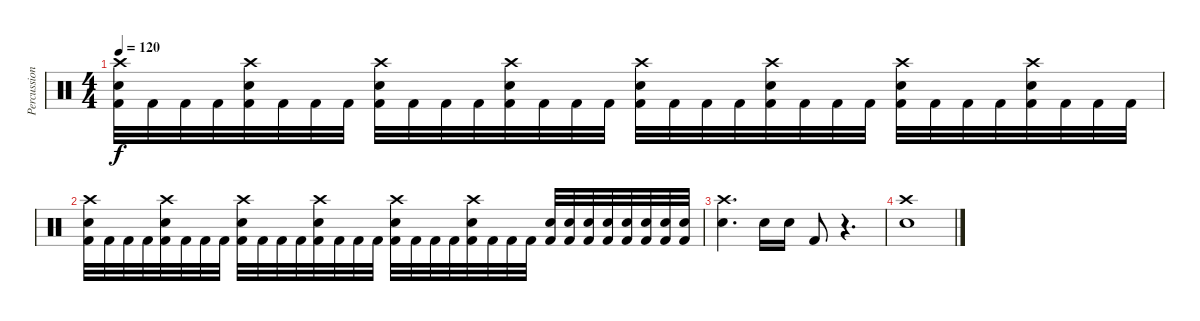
\track ("Percussions" "Percussion") {instrument percussion}
\staff {score}
\articulation defaults
\ts (4 4)
\tempo 120
\clef neutral
\ks c
("Crash high (hit)" "Snare (hit) 2" "Kick (hit) 2").32{dy f} "Kick (hit) 2".32 "Kick (hit) 2".32 "Kick (hit) 2".32 ("Crash high (hit)" "Snare (hit) 2" "Kick (hit) 2").32 "Kick (hit) 2".32 "Kick (hit) 2".32 "Kick (hit) 2".32 ("Crash high (hit)" "Snare (hit) 2" "Kick (hit) 2").32 "Kick (hit) 2".32 "Kick (hit) 2".32 "Kick (hit) 2".32 ("Crash high (hit)" "Snare (hit) 2" "Kick (hit) 2").32 "Kick (hit) 2".32 "Kick (hit) 2".32 "Kick (hit) 2".32 ("Crash high (hit)" "Snare (hit) 2" "Kick (hit) 2").32 "Kick (hit) 2".32 "Kick (hit) 2".32 "Kick (hit) 2".32 ("Crash high (hit)" "Snare (hit) 2" "Kick (hit) 2").32 "Kick (hit) 2".32 "Kick (hit) 2".32 "Kick (hit) 2".32 ("Crash high (hit)" "Snare (hit) 2" "Kick (hit) 2").32 "Kick (hit) 2".32 "Kick (hit) 2".32 "Kick (hit) 2".32 ("Crash high (hit)" "Snare (hit) 2" "Kick (hit) 2").32 "Kick (hit) 2".32 "Kick (hit) 2".32 "Kick (hit) 2".32 |
("Crash high (hit)" "Snare (hit) 2" "Kick (hit) 2").32 "Kick (hit) 2".32 "Kick (hit) 2".32 "Kick (hit) 2".32 ("Crash high (hit)" "Snare (hit) 2" "Kick (hit) 2").32 "Kick (hit) 2".32 "Kick (hit) 2".32 "Kick (hit) 2".32 ("Crash high (hit)" "Snare (hit) 2" "Kick (hit) 2").32 "Kick (hit) 2".32 "Kick (hit) 2".32 "Kick (hit) 2".32 ("Crash high (hit)" "Snare (hit) 2" "Kick (hit) 2").32 "Kick (hit) 2".32 "Kick (hit) 2".32 "Kick (hit) 2".32 ("Crash high (hit)" "Snare (hit) 2" "Kick (hit) 2").32 "Kick (hit) 2".32 "Kick (hit) 2".32 "Kick (hit) 2".32 ("Crash high (hit)" "Snare (hit) 2" "Kick (hit) 2").32 "Kick (hit) 2".32 "Kick (hit) 2".32 "Kick (hit) 2".32 ("Snare (hit) 2" "Kick (hit) 2").32 ("Snare (hit) 2" "Kick (hit) 2").32 ("Snare (hit) 2" "Kick (hit) 2").32 ("Snare (hit) 2" "Kick (hit) 2").32 ("Snare (hit) 2" "Kick (hit) 2").32 ("Snare (hit) 2" "Kick (hit) 2").32 ("Snare (hit) 2" "Kick (hit) 2").32 ("Snare (hit) 2" "Kick (hit) 2").32 |
("Crash high (hit)" "Snare (hit) 2").4{d} "Snare (hit) 2".16 "Snare (hit) 2".16 "Kick (hit) 2".8 r.4{d} |
("Crash high (hit)" "Snare (hit) 2").1
